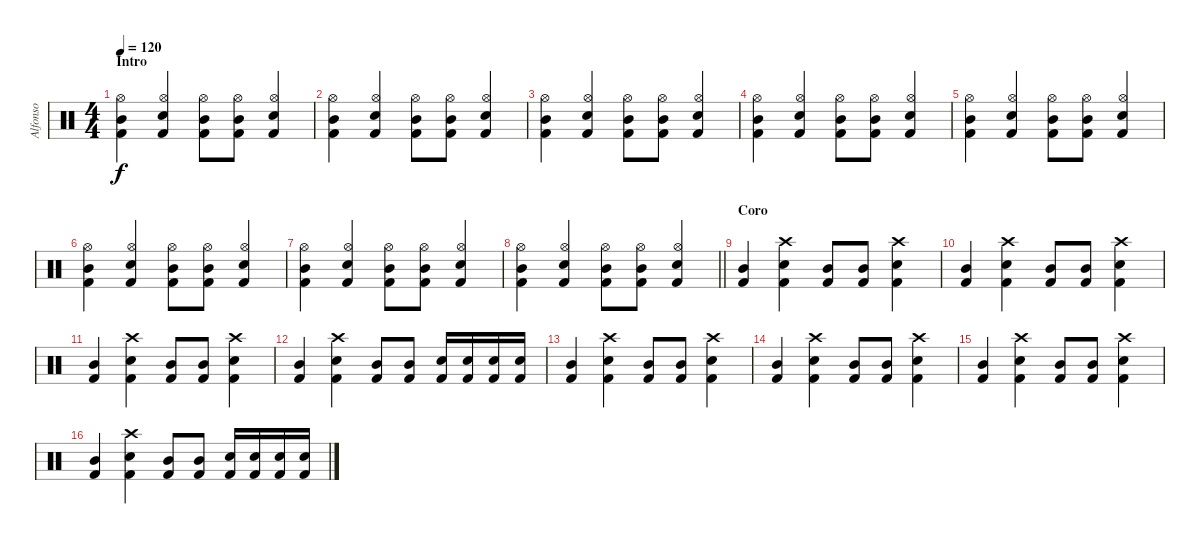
\track ("Alfonso" "Alfonso") {instrument percussion}
\staff {score}
\articulation defaults
\ts (4 4)
\section ("" "Intro")
\tempo 120
\clef neutral
\ks c
("Kick (hit) 2" "Mid Tom (hit)" "Hi-Hat (open)").4{dy f} ("Kick (hit) 2" "Snare (hit) 2" "Hi-Hat (open)").4 ("Kick (hit) 2" "Mid Tom (hit)" "Hi-Hat (open)").8 ("Kick (hit) 2" "Mid Tom (hit)" "Hi-Hat (open)").8 ("Kick (hit) 2" "Snare (hit) 2" "Hi-Hat (open)").4 |
("Kick (hit) 2" "Mid Tom (hit)" "Hi-Hat (open)").4 ("Kick (hit) 2" "Snare (hit) 2" "Hi-Hat (open)").4 ("Kick (hit) 2" "Mid Tom (hit)" "Hi-Hat (open)").8 ("Kick (hit) 2" "Mid Tom (hit)" "Hi-Hat (open)").8 ("Kick (hit) 2" "Snare (hit) 2" "Hi-Hat (open)").4 |
("Kick (hit) 2" "Mid Tom (hit)" "Hi-Hat (open)").4 ("Kick (hit) 2" "Snare (hit) 2" "Hi-Hat (open)").4 ("Kick (hit) 2" "Mid Tom (hit)" "Hi-Hat (open)").8 ("Kick (hit) 2" "Mid Tom (hit)" "Hi-Hat (open)").8 ("Kick (hit) 2" "Snare (hit) 2" "Hi-Hat (open)").4 |
("Kick (hit) 2" "Mid Tom (hit)" "Hi-Hat (open)").4 ("Kick (hit) 2" "Snare (hit) 2" "Hi-Hat (open)").4 ("Kick (hit) 2" "Mid Tom (hit)" "Hi-Hat (open)").8 ("Kick (hit) 2" "Mid Tom (hit)" "Hi-Hat (open)").8 ("Kick (hit) 2" "Snare (hit) 2" "Hi-Hat (open)").4 |
("Kick (hit) 2" "Mid Tom (hit)" "Hi-Hat (open)").4 ("Kick (hit) 2" "Snare (hit) 2" "Hi-Hat (open)").4 ("Kick (hit) 2" "Mid Tom (hit)" "Hi-Hat (open)").8 ("Kick (hit) 2" "Mid Tom (hit)" "Hi-Hat (open)").8 ("Kick (hit) 2" "Snare (hit) 2" "Hi-Hat (open)").4 |
("Kick (hit) 2" "Mid Tom (hit)" "Hi-Hat (open)").4 ("Kick (hit) 2" "Snare (hit) 2" "Hi-Hat (open)").4 ("Kick (hit) 2" "Mid Tom (hit)" "Hi-Hat (open)").8 ("Kick (hit) 2" "Mid Tom (hit)" "Hi-Hat (open)").8 ("Kick (hit) 2" "Snare (hit) 2" "Hi-Hat (open)").4 |
("Kick (hit) 2" "Mid Tom (hit)" "Hi-Hat (open)").4 ("Kick (hit) 2" "Snare (hit) 2" "Hi-Hat (open)").4 ("Kick (hit) 2" "Mid Tom (hit)" "Hi-Hat (open)").8 ("Kick (hit) 2" "Mid Tom (hit)" "Hi-Hat (open)").8 ("Kick (hit) 2" "Snare (hit) 2" "Hi-Hat (open)").4 |
\barLineRight lightlight
("Kick (hit) 2" "Mid Tom (hit)" "Hi-Hat (open)").4 ("Kick (hit) 2" "Snare (hit) 2" "Hi-Hat (open)").4 ("Kick (hit) 2" "Mid Tom (hit)" "Hi-Hat (open)").8 ("Kick (hit) 2" "Mid Tom (hit)" "Hi-Hat (open)").8 ("Kick (hit) 2" "Snare (hit) 2" "Hi-Hat (open)").4 |
\section ("" "Coro")
("Kick (hit) 2" "Mid Tom (hit)").4 ("Kick (hit) 2" "Snare (hit) 2" "Crash high (hit)").4 ("Kick (hit) 2" "Mid Tom (hit)").8 ("Kick (hit) 2" "Mid Tom (hit)").8 ("Kick (hit) 2" "Snare (hit) 2" "Crash high (hit)").4 |
("Kick (hit) 2" "Mid Tom (hit)").4 ("Kick (hit) 2" "Snare (hit) 2" "Crash high (hit)").4 ("Kick (hit) 2" "Mid Tom (hit)").8 ("Kick (hit) 2" "Mid Tom (hit)").8 ("Kick (hit) 2" "Snare (hit) 2" "Crash high (hit)").4 |
("Kick (hit) 2" "Mid Tom (hit)").4 ("Kick (hit) 2" "Snare (hit) 2" "Crash high (hit)").4 ("Kick (hit) 2" "Mid Tom (hit)").8 ("Kick (hit) 2" "Mid Tom (hit)").8 ("Kick (hit) 2" "Snare (hit) 2" "Crash high (hit)").4 |
("Kick (hit) 2" "Mid Tom (hit)").4 ("Kick (hit) 2" "Snare (hit) 2" "Crash high (hit)").4 ("Kick (hit) 2" "Mid Tom (hit)").8 ("Kick (hit) 2" "Mid Tom (hit)").8 ("Kick (hit) 2" "Snare (hit) 2").16 ("Kick (hit) 2" "Snare (hit) 2").16 ("Kick (hit) 2" "Snare (hit) 2").16 ("Kick (hit) 2" "Snare (hit) 2").16 |
("Kick (hit) 2" "Mid Tom (hit)").4 ("Kick (hit) 2" "Snare (hit) 2" "Crash high (hit)").4 ("Kick (hit) 2" "Mid Tom (hit)").8 ("Kick (hit) 2" "Mid Tom (hit)").8 ("Kick (hit) 2" "Snare (hit) 2" "Crash high (hit)").4 |
("Kick (hit) 2" "Mid Tom (hit)").4 ("Kick (hit) 2" "Snare (hit) 2" "Crash high (hit)").4 ("Kick (hit) 2" "Mid Tom (hit)").8 ("Kick (hit) 2" "Mid Tom (hit)").8 ("Kick (hit) 2" "Snare (hit) 2" "Crash high (hit)").4 |
("Kick (hit) 2" "Mid Tom (hit)").4 ("Kick (hit) 2" "Snare (hit) 2" "Crash high (hit)").4 ("Kick (hit) 2" "Mid Tom (hit)").8 ("Kick (hit) 2" "Mid Tom (hit)").8 ("Kick (hit) 2" "Snare (hit) 2" "Crash high (hit)").4 |
("Kick (hit) 2" "Mid Tom (hit)").4 ("Kick (hit) 2" "Snare (hit) 2" "Crash high (hit)").4 ("Kick (hit) 2" "Mid Tom (hit)").8 ("Kick (hit) 2" "Mid Tom (hit)").8 ("Kick (hit) 2" "Snare (hit) 2").16 ("Kick (hit) 2" "Snare (hit) 2").16 ("Kick (hit) 2" "Snare (hit) 2").16 ("Kick (hit) 2" "Snare (hit) 2").16
